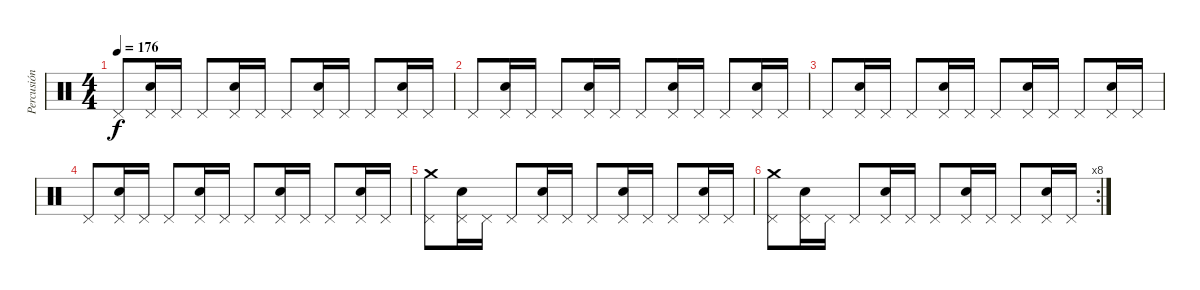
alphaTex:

\track ("Percusión" "Percusión") {instrument percussion}
\staff {score}
\articulation defaults
\ts (4 4)
\tempo 176
\clef neutral
\ks c "Pedal Hi-Hat (hit)".8{dy f}
("Pedal Hi-Hat (hit)" "Snare (hit) 2").16 "Pedal Hi-Hat (hit)".16 "Pedal Hi-Hat (hit)".8 ("Pedal Hi-Hat (hit)" "Snare (hit) 2").16 "Pedal Hi-Hat (hit)".16 "Pedal Hi-Hat (hit)".8 ("Pedal Hi-Hat (hit)" "Snare (hit) 2").16 "Pedal Hi-Hat (hit)".16 "Pedal Hi-Hat (hit)".8 ("Pedal Hi-Hat (hit)" "Snare (hit) 2").16 "Pedal Hi-Hat (hit)".16 |
"Pedal Hi-Hat (hit)".8 ("Pedal Hi-Hat (hit)" "Snare (hit) 2").16 "Pedal Hi-Hat (hit)".16 "Pedal Hi-Hat (hit)".8 ("Pedal Hi-Hat (hit)" "Snare (hit) 2").16 "Pedal Hi-Hat (hit)".16 "Pedal Hi-Hat (hit)".8 ("Pedal Hi-Hat (hit)" "Snare (hit) 2").16 "Pedal Hi-Hat (hit)".16 "Pedal Hi-Hat (hit)".8 ("Pedal Hi-Hat (hit)" "Snare (hit) 2").16 "Pedal Hi-Hat (hit)".16 |
"Pedal Hi-Hat (hit)".8 ("Pedal Hi-Hat (hit)" "Snare (hit) 2").16 "Pedal Hi-Hat (hit)".16 "Pedal Hi-Hat (hit)".8 ("Pedal Hi-Hat (hit)" "Snare (hit) 2").16 "Pedal Hi-Hat (hit)".16 "Pedal Hi-Hat (hit)".8 ("Pedal Hi-Hat (hit)" "Snare (hit) 2").16 "Pedal Hi-Hat (hit)".16 "Pedal Hi-Hat (hit)".8 ("Pedal Hi-Hat (hit)" "Snare (hit) 2").16 "Pedal Hi-Hat (hit)".16 |
"Pedal Hi-Hat (hit)".8 ("Pedal Hi-Hat (hit)" "Snare (hit) 2").16 "Pedal Hi-Hat (hit)".16 "Pedal Hi-Hat (hit)".8 ("Pedal Hi-Hat (hit)" "Snare (hit) 2").16 "Pedal Hi-Hat (hit)".16 "Pedal Hi-Hat (hit)".8 ("Pedal Hi-Hat (hit)" "Snare (hit) 2").16 "Pedal Hi-Hat (hit)".16 "Pedal Hi-Hat (hit)".8 ("Pedal Hi-Hat (hit)" "Snare (hit) 2").16 "Pedal Hi-Hat (hit)".16 |
("Crash medium (hit)" "Pedal Hi-Hat (hit)").8 ("Pedal Hi-Hat (hit)" "Snare (hit) 2").16 "Pedal Hi-Hat (hit)".16 "Pedal Hi-Hat (hit)".8 ("Pedal Hi-Hat (hit)" "Snare (hit) 2").16 "Pedal Hi-Hat (hit)".16 "Pedal Hi-Hat (hit)".8 ("Pedal Hi-Hat (hit)" "Snare (hit) 2").16 "Pedal Hi-Hat (hit)".16 "Pedal Hi-Hat (hit)".8 ("Pedal Hi-Hat (hit)" "Snare (hit) 2").16 "Pedal Hi-Hat (hit)".16 |
\rc 8
("Crash medium (hit)" "Pedal Hi-Hat (hit)").8 ("Pedal Hi-Hat (hit)" "Snare (hit) 2").16 "Pedal Hi-Hat (hit)".16 "Pedal Hi-Hat (hit)".8 ("Pedal Hi-Hat (hit)" "Snare (hit) 2").16 "Pedal Hi-Hat (hit)".16 "Pedal Hi-Hat (hit)".8 ("Pedal Hi-Hat (hit)" "Snare (hit) 2").16 "Pedal Hi-Hat (hit)".16 "Pedal Hi-Hat (hit)".8 ("Pedal Hi-Hat (hit)" "Snare (hit) 2").16 "Pedal Hi-Hat (hit)".16
